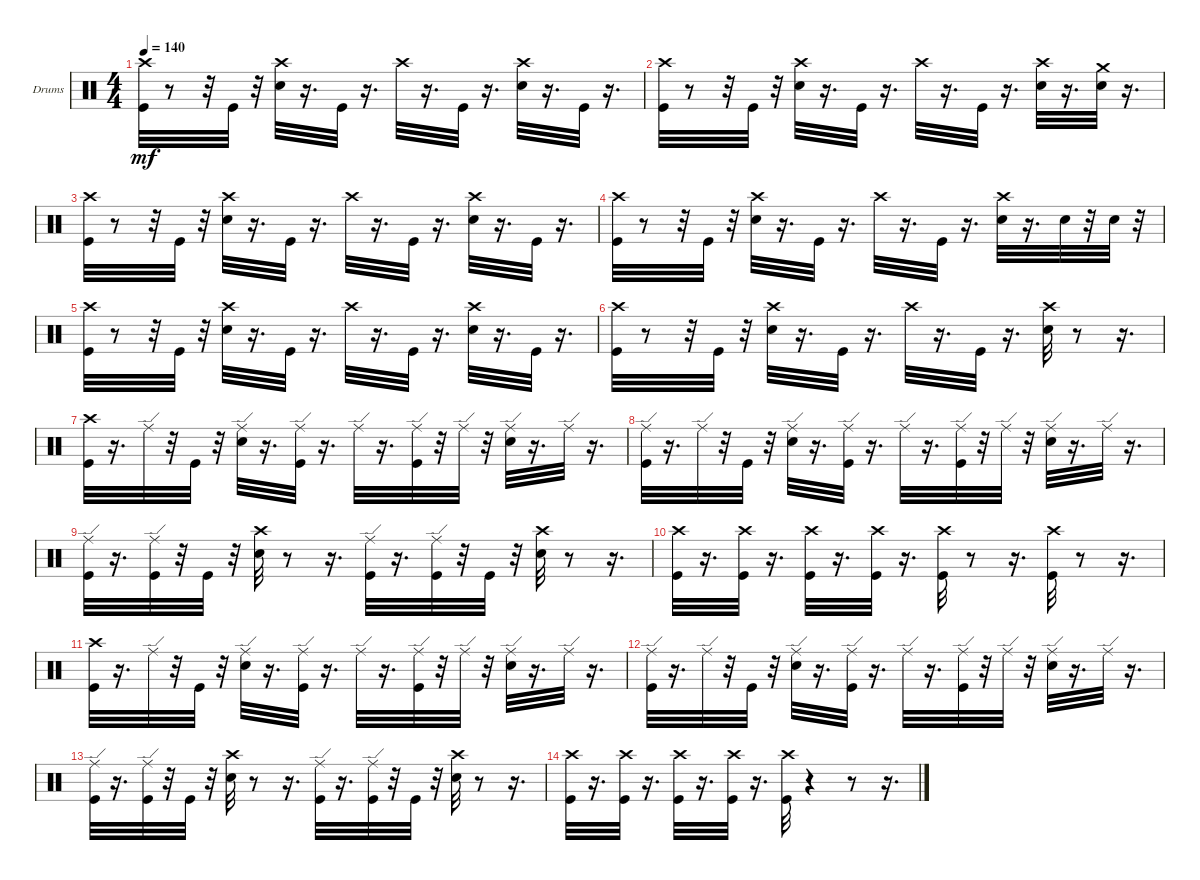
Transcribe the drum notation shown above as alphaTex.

\bracketExtendMode groupsimilarinstruments
\firstSystemTrackNameOrientation horizontal
\otherSystemsTrackNameOrientation horizontal
\track ("" "Drums") {instrument percussion}
\staff {score}
\articulation defaults
\ts (4 4)
\tempo 140
\clef neutral
\ks c
("Crash high (hit)" "Kick (hit)").32{dy mf} r.8 r.32 "Kick (hit)".32 r.32 ("Crash high (hit)" "Snare (hit) 2").32 r.16{d} "Kick (hit)".32 r.16{d} "Crash high (hit)".32 r.16{d} "Kick (hit)".32 r.16{d} ("Crash high (hit)" "Snare (hit) 2").32 r.16{d} "Kick (hit)".32 r.16{d} |
("Crash high (hit)" "Kick (hit)").32 r.8 r.32 "Kick (hit)".32 r.32 ("Crash high (hit)" "Snare (hit) 2").32 r.16{d} "Kick (hit)".32 r.16{d} "Crash high (hit)".32 r.16{d} "Kick (hit)".32 r.16{d} ("Crash high (hit)" "Snare (hit) 2").32 r.16{d} ("Crash medium (hit)" "Snare (hit) 2").32 r.16{d} |
("Crash high (hit)" "Kick (hit)").32 r.8 r.32 "Kick (hit)".32 r.32 ("Crash high (hit)" "Snare (hit) 2").32 r.16{d} "Kick (hit)".32 r.16{d} "Crash high (hit)".32 r.16{d} "Kick (hit)".32 r.16{d} ("Crash high (hit)" "Snare (hit) 2").32 r.16{d} "Kick (hit)".32 r.16{d} |
("Crash high (hit)" "Kick (hit)").32 r.8 r.32 "Kick (hit)".32 r.32 ("Crash high (hit)" "Snare (hit) 2").32 r.16{d} "Kick (hit)".32 r.16{d} "Crash high (hit)".32 r.16{d} "Kick (hit)".32 r.16{d} ("Crash high (hit)" "Snare (hit) 2").32 r.16{d} "Snare (hit) 2".32 r.32 "Snare (hit) 2".32 r.32 |
("Crash high (hit)" "Kick (hit)").32 r.8 r.32 "Kick (hit)".32 r.32 ("Crash high (hit)" "Snare (hit) 2").32 r.16{d} "Kick (hit)".32 r.16{d} "Crash high (hit)".32 r.16{d} "Kick (hit)".32 r.16{d} ("Crash high (hit)" "Snare (hit) 2").32 r.16{d} "Kick (hit)".32 r.16{d} |
("Crash high (hit)" "Kick (hit)").32 r.8 r.32 "Kick (hit)".32 r.32 ("Crash high (hit)" "Snare (hit) 2").32 r.16{d} "Kick (hit)".32 r.16{d} "Crash high (hit)".32 r.16{d} "Kick (hit)".32 r.16{d} ("Crash high (hit)" "Snare (hit) 2").32 r.8 r.16{d} |
("Crash high (hit)" "Kick (hit)").32 r.16{d} "Ride (edge)".32 r.32 "Kick (hit)".32 r.32 ("Ride (edge)" "Snare (hit) 2").32 r.16{d} ("Kick (hit)" "Ride (edge)").32 r.16{d} "Ride (edge)".32 r.16{d} ("Kick (hit)" "Ride (edge)").32 r.32 "Ride (edge)".32 r.32 ("Ride (edge)" "Snare (hit) 2").32 r.16{d} "Ride (edge)".32 r.16{d} |
("Ride (edge)" "Kick (hit)").32 r.16{d} "Ride (edge)".32 r.32 "Kick (hit)".32 r.32 ("Ride (edge)" "Snare (hit) 2").32 r.16{d} ("Kick (hit)" "Ride (edge)").32 r.16{d} "Ride (edge)".32 r.16{d} ("Kick (hit)" "Ride (edge)").32 r.32 "Ride (edge)".32 r.32 ("Ride (edge)" "Snare (hit) 2").32 r.16{d} "Ride (edge)".32 r.16{d} |
("Ride (edge)" "Kick (hit)").32 r.16{d} ("Ride (edge)" "Kick (hit)").32 r.32 "Kick (hit)".32 r.32 ("Crash high (hit)" "Snare (hit) 2").32 r.8 r.16{d} ("Ride (edge)" "Kick (hit)").32 r.16{d} ("Kick (hit)" "Ride (edge)").32 r.32 "Kick (hit)".32 r.32 ("Crash high (hit)" "Snare (hit) 2").32 r.8 r.16{d} |
("Crash high (hit)" "Kick (hit)").32 r.16{d} ("Crash high (hit)" "Kick (hit)").32 r.16{d} ("Crash high (hit)" "Kick (hit)").32 r.16{d} ("Crash high (hit)" "Kick (hit)").32 r.16{d} ("Crash high (hit)" "Kick (hit)").32 r.8 r.16{d} ("Crash high (hit)" "Kick (hit)").32 r.8 r.16{d} |
("Crash high (hit)" "Kick (hit)").32 r.16{d} "Ride (edge)".32 r.32 "Kick (hit)".32 r.32 ("Ride (edge)" "Snare (hit) 2").32 r.16{d} ("Kick (hit)" "Ride (edge)").32 r.16{d} "Ride (edge)".32 r.16{d} ("Kick (hit)" "Ride (edge)").32 r.32 "Ride (edge)".32 r.32 ("Ride (edge)" "Snare (hit) 2").32 r.16{d} "Ride (edge)".32 r.16{d} |
("Ride (edge)" "Kick (hit)").32 r.16{d} "Ride (edge)".32 r.32 "Kick (hit)".32 r.32 ("Ride (edge)" "Snare (hit) 2").32 r.16{d} ("Kick (hit)" "Ride (edge)").32 r.16{d} "Ride (edge)".32 r.16{d} ("Kick (hit)" "Ride (edge)").32 r.32 "Ride (edge)".32 r.32 ("Ride (edge)" "Snare (hit) 2").32 r.16{d} "Ride (edge)".32 r.16{d} |
("Ride (edge)" "Kick (hit)").32 r.16{d} ("Ride (edge)" "Kick (hit)").32 r.32 "Kick (hit)".32 r.32 ("Crash high (hit)" "Snare (hit) 2").32 r.8 r.16{d} ("Ride (edge)" "Kick (hit)").32 r.16{d} ("Kick (hit)" "Ride (edge)").32 r.32 "Kick (hit)".32 r.32 ("Crash high (hit)" "Snare (hit) 2").32 r.8 r.16{d} |
("Crash high (hit)" "Kick (hit)").32 r.16{d} ("Crash high (hit)" "Kick (hit)").32 r.16{d} ("Crash high (hit)" "Kick (hit)").32 r.16{d} ("Crash high (hit)" "Kick (hit)").32 r.16{d} ("Crash high (hit)" "Kick (hit)").32 r.4 r.8 r.16{d}
